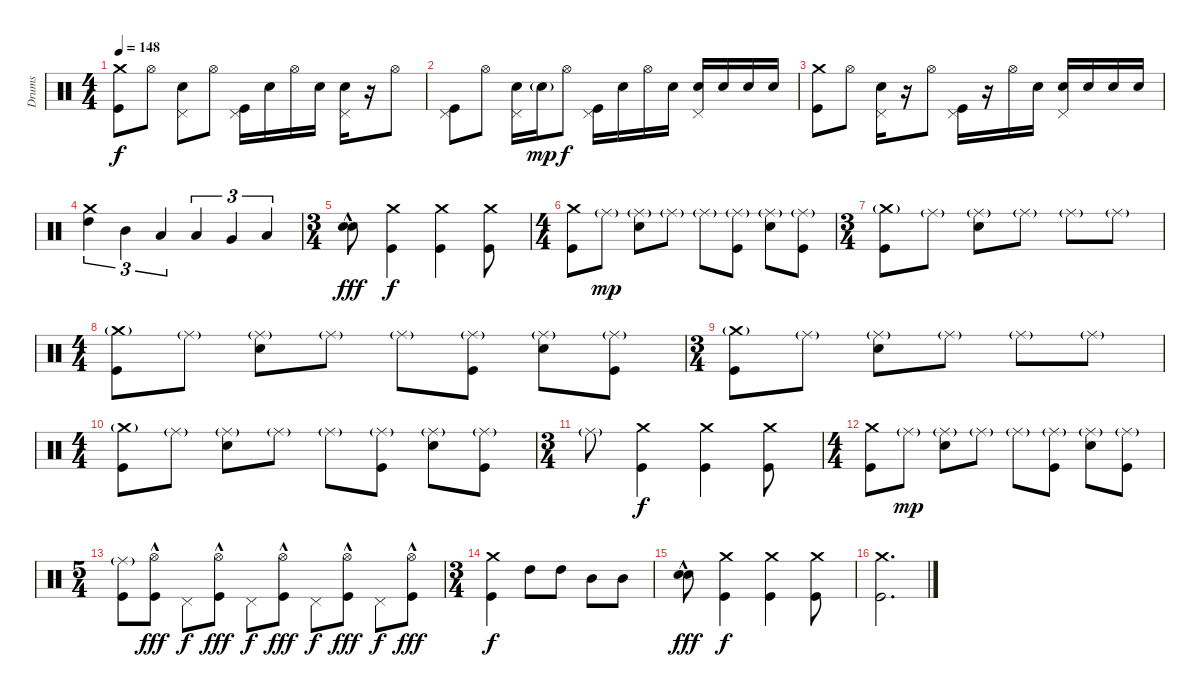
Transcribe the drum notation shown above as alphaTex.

\track ("Drums" "Drums") {instrument percussion}
\staff {score}
\articulation defaults
\ts (4 4)
\tempo 148
\clef neutral
\ks c
("Crash medium (hit)" "Kick (hit)").8{dy f} "Hi-Hat (open)".8 ("Pedal Hi-Hat (hit)" "Electric Snare (hit)").8 "Hi-Hat (open)".8 ("Pedal Hi-Hat (hit)" "Kick (hit)").16 "Electric Snare (hit)".16 "Hi-Hat (open)".16 "Electric Snare (hit)".16 ("Pedal Hi-Hat (hit)" "Electric Snare (hit)").16 r.16 "Hi-Hat (open)".8 |
("Pedal Hi-Hat (hit)" "Kick (hit)").8 "Hi-Hat (open)".8 ("Pedal Hi-Hat (hit)" "Electric Snare (hit)").16 "Electric Snare (hit)"{g}.16{dy mp} "Hi-Hat (open)".8{dy f} ("Pedal Hi-Hat (hit)" "Kick (hit)").16 "Electric Snare (hit)".16 "Hi-Hat (open)".16 "Electric Snare (hit)".16 ("Pedal Hi-Hat (hit)" "Electric Snare (hit)").16 "Electric Snare (hit)".16 "Electric Snare (hit)".16 "Electric Snare (hit)".16 |
("Crash medium (hit)" "Kick (hit)").8 "Hi-Hat (open)".8 ("Pedal Hi-Hat (hit)" "Electric Snare (hit)").16 r.16 "Hi-Hat (open)".8 ("Pedal Hi-Hat (hit)" "Kick (hit)").16 r.16 "Hi-Hat (open)".16 "Electric Snare (hit)".16 ("Pedal Hi-Hat (hit)" "Electric Snare (hit)").16 "Electric Snare (hit)".16 "Electric Snare (hit)".16 "Electric Snare (hit)".16 |
("Crash medium (hit)" "High Tom (hit)").4{tu (3 2)} "Mid Tom (hit)".4{tu (3 2)} "Low Tom (hit)".4{tu (3 2)} "Low Tom (hit)".4{tu (3 2)} "Very Low Tom (hit)".4{tu (3 2)} "Low Floor Tom (hit)".4{tu (3 2)} |
\ts (3 4)
("Electric Snare (hit)" "Electric Snare (hit)"{hac}).8{dy fff} ("Crash medium (hit)" "Kick (hit)").4{dy f} ("Crash medium (hit)" "Kick (hit)").4 ("Crash medium (hit)" "Kick (hit)").8 |
\ts (4 4)
("Crash medium (hit)" "Kick (hit)").8 "Ride (middle)"{g}.8{dy mp} ("Ride (middle)"{g} "Electric Snare (hit)").8 "Ride (middle)"{g}.8 "Ride (middle)"{g}.8 ("Ride (middle)"{g} "Kick (hit)").8 ("Ride (middle)"{g} "Electric Snare (hit)").8 ("Ride (middle)"{g} "Kick (hit)").8 |
\ts (3 4)
("Crash medium (hit)"{g} "Kick (hit)").8 "Ride (middle)"{g}.8 ("Ride (middle)"{g} "Electric Snare (hit)").8 "Ride (middle)"{g}.8 "Ride (middle)"{g}.8 "Ride (middle)"{g}.8 |
\ts (4 4)
("Crash medium (hit)"{g} "Kick (hit)").8 "Ride (middle)"{g}.8 ("Ride (middle)"{g} "Electric Snare (hit)").8 "Ride (middle)"{g}.8 "Ride (middle)"{g}.8 ("Ride (middle)"{g} "Kick (hit)").8 ("Ride (middle)"{g} "Electric Snare (hit)").8 ("Ride (middle)"{g} "Kick (hit)").8 |
\ts (3 4)
("Crash medium (hit)"{g} "Kick (hit)").8 "Ride (middle)"{g}.8 ("Ride (middle)"{g} "Electric Snare (hit)").8 "Ride (middle)"{g}.8 "Ride (middle)"{g}.8 "Ride (middle)"{g}.8 |
\ts (4 4)
("Crash medium (hit)"{g} "Kick (hit)").8 "Ride (middle)"{g}.8 ("Ride (middle)"{g} "Electric Snare (hit)").8 "Ride (middle)"{g}.8 "Ride (middle)"{g}.8 ("Ride (middle)"{g} "Kick (hit)").8 ("Ride (middle)"{g} "Electric Snare (hit)").8 ("Ride (middle)"{g} "Kick (hit)").8 |
\ts (3 4)
"Ride (middle)"{g}.8 ("Crash medium (hit)" "Kick (hit)").4{dy f} ("Crash medium (hit)" "Kick (hit)").4 ("Crash medium (hit)" "Kick (hit)").8 |
\ts (4 4)
("Crash medium (hit)" "Kick (hit)").8 "Ride (middle)"{g}.8{dy mp} ("Ride (middle)"{g} "Electric Snare (hit)").8 "Ride (middle)"{g}.8 "Ride (middle)"{g}.8 ("Ride (middle)"{g} "Kick (hit)").8 ("Ride (middle)"{g} "Electric Snare (hit)").8 ("Ride (middle)"{g} "Kick (hit)").8 |
\ts (5 4)
("Ride (middle)"{g} "Kick (hit)").8 ("Hi-Hat (open)"{hac} "Kick (hit)").8{dy fff} "Pedal Hi-Hat (hit)".8{dy f} ("Hi-Hat (open)"{hac} "Kick (hit)").8{dy fff} "Pedal Hi-Hat (hit)".8{dy f} ("Hi-Hat (open)"{hac} "Kick (hit)").8{dy fff} "Pedal Hi-Hat (hit)".8{dy f} ("Hi-Hat (open)"{hac} "Kick (hit)").8{dy fff} "Pedal Hi-Hat (hit)".8{dy f} ("Hi-Hat (open)"{hac} "Kick (hit)").8{dy fff} |
\ts (3 4)
("Crash medium (hit)" "Kick (hit)").4{dy f} "High Tom (hit)".8 "High Tom (hit)".8 "Mid Tom (hit)".8 "Mid Tom (hit)".8 |
("Electric Snare (hit)"{hac} "Electric Snare (hit)"{hac}).8{dy fff} ("Crash medium (hit)" "Kick (hit)").4{dy f} ("Crash medium (hit)" "Kick (hit)").4 ("Crash medium (hit)" "Kick (hit)").8 |
("Crash medium (hit)" "Kick (hit)").2{d}
